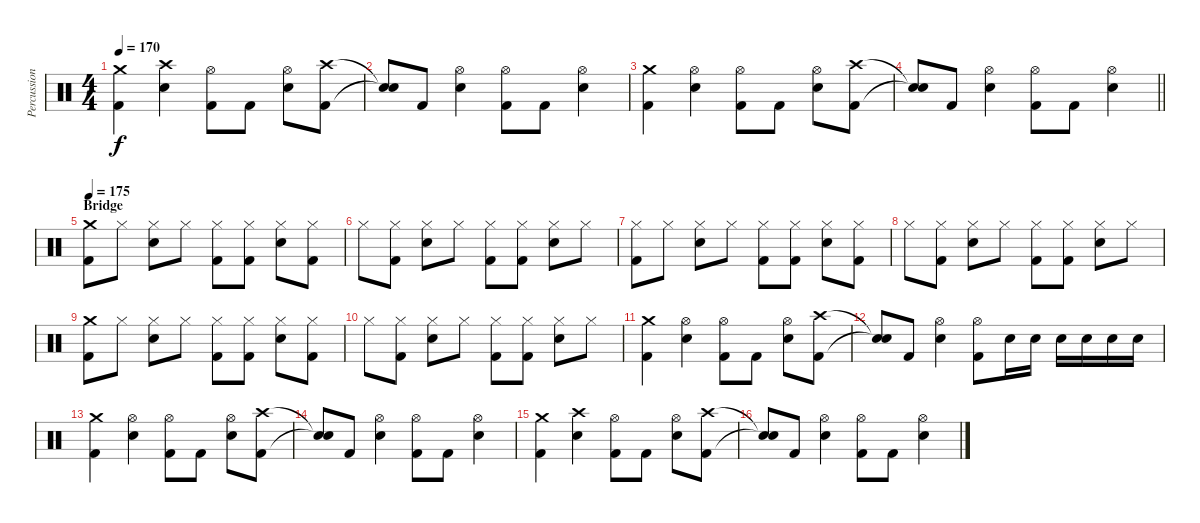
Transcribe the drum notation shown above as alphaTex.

\track ("Percussions" "Percussion") {instrument percussion}
\staff {score}
\articulation defaults
\ts (4 4)
\tempo 170
\clef neutral
\ks c
("Crash medium (hit)" "Kick (hit) 2").4{dy f} ("Crash high (hit)" "Electric Snare (hit)").4 ("Hi-Hat (open)" "Kick (hit) 2").8 "Kick (hit) 2".8 ("Hi-Hat (open)" "Electric Snare (hit)").8 ("Crash high (hit)" "Kick (hit) 2").8 |
("Snare (hit)"{t} "Snare (hit)"{t}).8 "Kick (hit) 2".8 ("Hi-Hat (open)" "Electric Snare (hit)").4 ("Hi-Hat (open)" "Kick (hit) 2").8 "Kick (hit) 2".8 ("Hi-Hat (open)" "Electric Snare (hit)").4 |
("Crash medium (hit)" "Kick (hit) 2").4 ("Hi-Hat (open)" "Electric Snare (hit)").4 ("Hi-Hat (open)" "Kick (hit) 2").8 "Kick (hit) 2".8 ("Hi-Hat (open)" "Electric Snare (hit)").8 ("Crash high (hit)" "Kick (hit) 2").8 |
\barLineRight lightlight
("Snare (hit)"{t} "Snare (hit)"{t}).8 "Kick (hit) 2".8 ("Hi-Hat (open)" "Electric Snare (hit)").4 ("Hi-Hat (open)" "Kick (hit) 2").8 "Kick (hit) 2".8 ("Hi-Hat (open)" "Electric Snare (hit)").4 |
\section ("" "Bridge")
\tempo 175
("Crash medium (hit)" "Kick (hit) 2").8 "Hi-Hat (closed)".8 ("Hi-Hat (closed)" "Electric Snare (hit)").8 "Hi-Hat (closed)".8 ("Hi-Hat (closed)" "Kick (hit) 2").8 ("Hi-Hat (closed)" "Kick (hit) 2").8 ("Hi-Hat (closed)" "Electric Snare (hit)").8 ("Hi-Hat (closed)" "Kick (hit) 2").8 |
"Hi-Hat (closed)".8 ("Hi-Hat (closed)" "Kick (hit) 2").8 ("Hi-Hat (closed)" "Electric Snare (hit)").8 "Hi-Hat (closed)".8 ("Hi-Hat (closed)" "Kick (hit) 2").8 ("Hi-Hat (closed)" "Kick (hit) 2").8 ("Hi-Hat (closed)" "Electric Snare (hit)").8 "Hi-Hat (closed)".8 |
("Hi-Hat (closed)" "Kick (hit) 2").8 "Hi-Hat (closed)".8 ("Hi-Hat (closed)" "Electric Snare (hit)").8 "Hi-Hat (closed)".8 ("Hi-Hat (closed)" "Kick (hit) 2").8 ("Hi-Hat (closed)" "Kick (hit) 2").8 ("Hi-Hat (closed)" "Electric Snare (hit)").8 ("Hi-Hat (closed)" "Kick (hit) 2").8 |
"Hi-Hat (closed)".8 ("Hi-Hat (closed)" "Kick (hit) 2").8 ("Hi-Hat (closed)" "Electric Snare (hit)").8 "Hi-Hat (closed)".8 ("Hi-Hat (closed)" "Kick (hit) 2").8 ("Hi-Hat (closed)" "Kick (hit) 2").8 ("Hi-Hat (closed)" "Electric Snare (hit)").8 "Hi-Hat (closed)".8 |
("Crash medium (hit)" "Kick (hit) 2").8 "Hi-Hat (closed)".8 ("Hi-Hat (closed)" "Electric Snare (hit)").8 "Hi-Hat (closed)".8 ("Hi-Hat (closed)" "Kick (hit) 2").8 ("Hi-Hat (closed)" "Kick (hit) 2").8 ("Hi-Hat (closed)" "Electric Snare (hit)").8 ("Hi-Hat (closed)" "Kick (hit) 2").8 |
"Hi-Hat (closed)".8 ("Hi-Hat (closed)" "Kick (hit) 2").8 ("Hi-Hat (closed)" "Electric Snare (hit)").8 "Hi-Hat (closed)".8 ("Hi-Hat (closed)" "Kick (hit) 2").8 ("Hi-Hat (closed)" "Kick (hit) 2").8 ("Hi-Hat (closed)" "Electric Snare (hit)").8 "Hi-Hat (closed)".8 |
("Crash medium (hit)" "Kick (hit) 2").4 ("Hi-Hat (open)" "Electric Snare (hit)").4 ("Hi-Hat (open)" "Kick (hit) 2").8 "Kick (hit) 2".8 ("Hi-Hat (open)" "Electric Snare (hit)").8 ("Crash high (hit)" "Kick (hit) 2").8 |
("Snare (hit)"{t} "Snare (hit)"{t}).8 "Kick (hit) 2".8 ("Hi-Hat (open)" "Electric Snare (hit)").4 ("Hi-Hat (open)" "Kick (hit) 2").8 "Electric Snare (hit)".16 "Electric Snare (hit)".16 "Electric Snare (hit)".16 "Electric Snare (hit)".16 "Electric Snare (hit)".16 "Electric Snare (hit)".16 |
("Crash medium (hit)" "Kick (hit) 2").4 ("Hi-Hat (open)" "Electric Snare (hit)").4 ("Hi-Hat (open)" "Kick (hit) 2").8 "Kick (hit) 2".8 ("Hi-Hat (open)" "Electric Snare (hit)").8 ("Crash high (hit)" "Kick (hit) 2").8 |
("Snare (hit)"{t} "Snare (hit)"{t}).8 "Kick (hit) 2".8 ("Hi-Hat (open)" "Electric Snare (hit)").4 ("Hi-Hat (open)" "Kick (hit) 2").8 "Kick (hit) 2".8 ("Hi-Hat (open)" "Electric Snare (hit)").4 |
("Crash medium (hit)" "Kick (hit) 2").4 ("Crash high (hit)" "Electric Snare (hit)").4 ("Hi-Hat (open)" "Kick (hit) 2").8 "Kick (hit) 2".8 ("Hi-Hat (open)" "Electric Snare (hit)").8 ("Crash high (hit)" "Kick (hit) 2").8 |
("Snare (hit)"{t} "Snare (hit)"{t}).8 "Kick (hit) 2".8 ("Hi-Hat (open)" "Electric Snare (hit)").4 ("Hi-Hat (open)" "Kick (hit) 2").8 "Kick (hit) 2".8 ("Hi-Hat (open)" "Electric Snare (hit)").4
